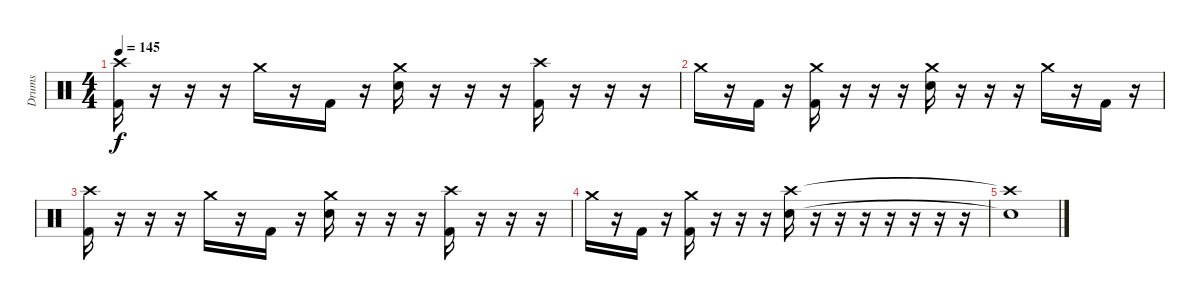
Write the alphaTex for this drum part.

\track ("Drums" "Drums") {instrument percussion}
\staff {score}
\articulation defaults
\ts (4 4)
\tempo 145
\clef neutral
\ks c
("Crash high (hit)" "Kick (hit) 2").16{dy f} r.16 r.16 r.16 "Crash medium (hit)".16 r.16 "Kick (hit) 2".16 r.16 ("Crash medium (hit)" "Electric Snare (hit)").16 r.16 r.16 r.16 ("Crash high (hit)" "Kick (hit) 2").16 r.16 r.16 r.16 |
"Crash medium (hit)".16 r.16 "Kick (hit) 2".16 r.16 ("Crash medium (hit)" "Kick (hit) 2").16 r.16 r.16 r.16 ("Crash medium (hit)" "Electric Snare (hit)").16 r.16 r.16 r.16 "Crash medium (hit)".16 r.16 "Kick (hit) 2".16 r.16 |
("Crash high (hit)" "Kick (hit) 2").16 r.16 r.16 r.16 "Crash medium (hit)".16 r.16 "Kick (hit) 2".16 r.16 ("Crash medium (hit)" "Electric Snare (hit)").16 r.16 r.16 r.16 ("Crash high (hit)" "Kick (hit) 2").16 r.16 r.16 r.16 |
"Crash medium (hit)".16 r.16 "Kick (hit) 2".16 r.16 ("Crash medium (hit)" "Kick (hit) 2").16 r.16 r.16 r.16 ("Crash high (hit)" "Electric Snare (hit)").16 r.16 r.16 r.16 r.16 r.16 r.16 r.16 |
("Crash high (hit)"{t} "Electric Snare (hit)"{t}).1
